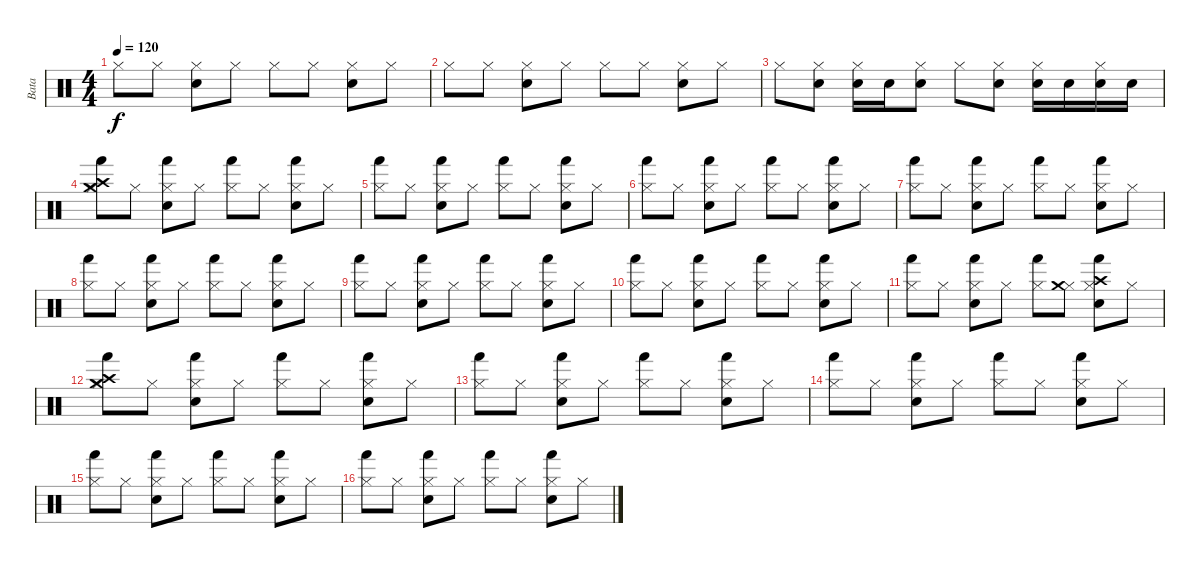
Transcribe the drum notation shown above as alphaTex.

\track ("Bata" "Bata") {instrument percussion}
\staff {score}
\articulation defaults
\ts (4 4)
\tempo 120
\clef neutral
\ks c "Hi-Hat (closed)".8{dy f} "Hi-Hat (closed)".8
("Hi-Hat (closed)" "Electric Snare (hit)").8 "Hi-Hat (closed)".8 "Hi-Hat (closed)".8 "Hi-Hat (closed)".8 ("Hi-Hat (closed)" "Electric Snare (hit)").8 "Hi-Hat (closed)".8 |
"Hi-Hat (closed)".8 "Hi-Hat (closed)".8 ("Hi-Hat (closed)" "Electric Snare (hit)").8 "Hi-Hat (closed)".8 "Hi-Hat (closed)".8 "Hi-Hat (closed)".8 ("Hi-Hat (closed)" "Electric Snare (hit)").8 "Hi-Hat (closed)".8 |
"Hi-Hat (closed)".8 ("Hi-Hat (closed)" "Electric Snare (hit)").8 ("Hi-Hat (closed)" "Electric Snare (hit)").16 "Electric Snare (hit)".16 ("Hi-Hat (closed)" "Electric Snare (hit)").8 "Hi-Hat (closed)".8 ("Hi-Hat (closed)" "Electric Snare (hit)").8 ("Hi-Hat (closed)" "Electric Snare (hit)").16 "Electric Snare (hit)".16 ("Hi-Hat (closed)" "Electric Snare (hit)").16 "Electric Snare (hit)".16 |
("Hi-Hat (closed)" "Crash medium (hit)" "Crash high (hit)" "Hand (hit)").8 "Hi-Hat (closed)".8 ("Hi-Hat (closed)" "Electric Snare (hit)" "Hand (hit)").8 "Hi-Hat (closed)".8 ("Hi-Hat (closed)" "Hand (hit)").8 "Hi-Hat (closed)".8 ("Hi-Hat (closed)" "Electric Snare (hit)" "Hand (hit)").8 "Hi-Hat (closed)".8 |
("Hi-Hat (closed)" "Hand (hit)").8 "Hi-Hat (closed)".8 ("Hi-Hat (closed)" "Electric Snare (hit)" "Hand (hit)").8 "Hi-Hat (closed)".8 ("Hi-Hat (closed)" "Hand (hit)").8 "Hi-Hat (closed)".8 ("Hi-Hat (closed)" "Electric Snare (hit)" "Hand (hit)").8 "Hi-Hat (closed)".8 |
("Hi-Hat (closed)" "Hand (hit)").8 "Hi-Hat (closed)".8 ("Hi-Hat (closed)" "Electric Snare (hit)" "Hand (hit)").8 "Hi-Hat (closed)".8 ("Hi-Hat (closed)" "Hand (hit)").8 "Hi-Hat (closed)".8 ("Hi-Hat (closed)" "Electric Snare (hit)" "Hand (hit)").8 "Hi-Hat (closed)".8 |
("Hi-Hat (closed)" "Hand (hit)").8 "Hi-Hat (closed)".8 ("Hi-Hat (closed)" "Electric Snare (hit)" "Hand (hit)").8 "Hi-Hat (closed)".8 ("Hi-Hat (closed)" "Hand (hit)").8 "Hi-Hat (closed)".8 ("Hi-Hat (closed)" "Electric Snare (hit)" "Hand (hit)").8 "Hi-Hat (closed)".8 |
("Hi-Hat (closed)" "Hand (hit)").8 "Hi-Hat (closed)".8 ("Hi-Hat (closed)" "Electric Snare (hit)" "Hand (hit)").8 "Hi-Hat (closed)".8 ("Hi-Hat (closed)" "Hand (hit)").8 "Hi-Hat (closed)".8 ("Hi-Hat (closed)" "Electric Snare (hit)" "Hand (hit)").8 "Hi-Hat (closed)".8 |
("Hi-Hat (closed)" "Hand (hit)").8 "Hi-Hat (closed)".8 ("Hi-Hat (closed)" "Electric Snare (hit)" "Hand (hit)").8 "Hi-Hat (closed)".8 ("Hi-Hat (closed)" "Hand (hit)").8 "Hi-Hat (closed)".8 ("Hi-Hat (closed)" "Electric Snare (hit)" "Hand (hit)").8 "Hi-Hat (closed)".8 |
("Hi-Hat (closed)" "Hand (hit)").8 "Hi-Hat (closed)".8 ("Hi-Hat (closed)" "Electric Snare (hit)" "Hand (hit)").8 "Hi-Hat (closed)".8 ("Hi-Hat (closed)" "Hand (hit)").8 "Hi-Hat (closed)".8 ("Hi-Hat (closed)" "Electric Snare (hit)" "Hand (hit)").8 "Hi-Hat (closed)".8 |
("Hi-Hat (closed)" "Hand (hit)").8 "Hi-Hat (closed)".8 ("Hi-Hat (closed)" "Electric Snare (hit)" "Hand (hit)").8 "Hi-Hat (closed)".8 ("Hi-Hat (closed)" "Hand (hit)").8 ("Hi-Hat (closed)" "Crash medium (hit)").8 ("Hi-Hat (closed)" "Electric Snare (hit)" "Crash high (hit)" "Hand (hit)").8 "Hi-Hat (closed)".8 |
("Hi-Hat (closed)" "Crash medium (hit)" "Crash high (hit)" "Hand (hit)").8 "Hi-Hat (closed)".8 ("Hi-Hat (closed)" "Electric Snare (hit)" "Hand (hit)").8 "Hi-Hat (closed)".8 ("Hi-Hat (closed)" "Hand (hit)").8 "Hi-Hat (closed)".8 ("Hi-Hat (closed)" "Electric Snare (hit)" "Hand (hit)").8 "Hi-Hat (closed)".8 |
("Hi-Hat (closed)" "Hand (hit)").8 "Hi-Hat (closed)".8 ("Hi-Hat (closed)" "Electric Snare (hit)" "Hand (hit)").8 "Hi-Hat (closed)".8 ("Hi-Hat (closed)" "Hand (hit)").8 "Hi-Hat (closed)".8 ("Hi-Hat (closed)" "Electric Snare (hit)" "Hand (hit)").8 "Hi-Hat (closed)".8 |
("Hi-Hat (closed)" "Hand (hit)").8 "Hi-Hat (closed)".8 ("Hi-Hat (closed)" "Electric Snare (hit)" "Hand (hit)").8 "Hi-Hat (closed)".8 ("Hi-Hat (closed)" "Hand (hit)").8 "Hi-Hat (closed)".8 ("Hi-Hat (closed)" "Electric Snare (hit)" "Hand (hit)").8 "Hi-Hat (closed)".8 |
("Hi-Hat (closed)" "Hand (hit)").8 "Hi-Hat (closed)".8 ("Hi-Hat (closed)" "Electric Snare (hit)" "Hand (hit)").8 "Hi-Hat (closed)".8 ("Hi-Hat (closed)" "Hand (hit)").8 "Hi-Hat (closed)".8 ("Hi-Hat (closed)" "Electric Snare (hit)" "Hand (hit)").8 "Hi-Hat (closed)".8 |
("Hi-Hat (closed)" "Hand (hit)").8 "Hi-Hat (closed)".8 ("Hi-Hat (closed)" "Electric Snare (hit)" "Hand (hit)").8 "Hi-Hat (closed)".8 ("Hi-Hat (closed)" "Hand (hit)").8 "Hi-Hat (closed)".8 ("Hi-Hat (closed)" "Electric Snare (hit)" "Hand (hit)").8 "Hi-Hat (closed)".8
